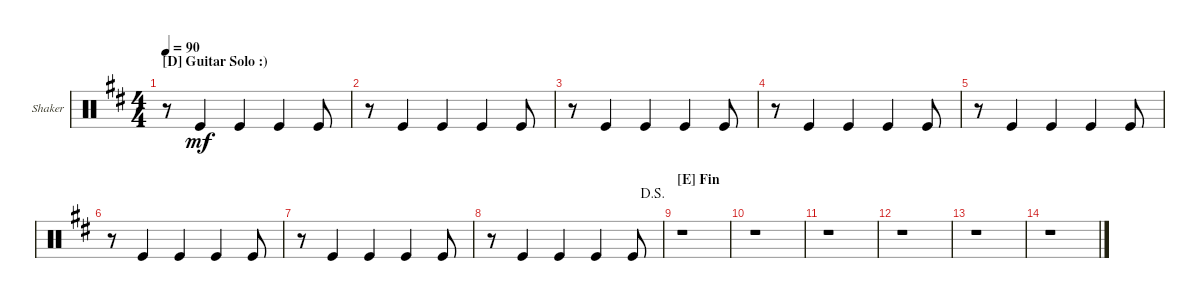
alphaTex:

\defaultSystemsLayout 4
\bracketExtendMode groupsimilarinstruments
\firstSystemTrackNameOrientation horizontal
\otherSystemsTrackNameOrientation horizontal
\track ("Shaker" "Shaker") {instrument percussion}
\staff {score}
\articulation defaults
\ts (4 4)
\section ("D" "Guitar Solo :)")
\tempo 90
\clef neutral
\scale
0.25
\ks d
r.8{dy mf} "Kick (hit)".4 "Kick (hit)".4 "Kick (hit)".4 "Kick (hit)".8 |
\scale
0.25 r.8 "Kick (hit)".4 "Kick (hit)".4 "Kick (hit)".4 "Kick (hit)".8 |
\scale
0.25 r.8 "Kick (hit)".4 "Kick (hit)".4 "Kick (hit)".4 "Kick (hit)".8 |
\scale
0.25 r.8 "Kick (hit)".4 "Kick (hit)".4 "Kick (hit)".4 "Kick (hit)".8 |
\scale
0.25 r.8 "Kick (hit)".4 "Kick (hit)".4 "Kick (hit)".4 "Kick (hit)".8 |
\scale
0.25 r.8 "Kick (hit)".4 "Kick (hit)".4 "Kick (hit)".4 "Kick (hit)".8 |
\scale
0.25 r.8 "Kick (hit)".4 "Kick (hit)".4 "Kick (hit)".4 "Kick (hit)".8 |
\jump dalsegno
\scale
0.25 r.8 "Kick (hit)".4 "Kick (hit)".4 "Kick (hit)".4 "Kick (hit)".8 |
\section ("E" "Fin")
r.1 |
r.1 |
r.1 |
r.1 |
r.1 |
r.1
